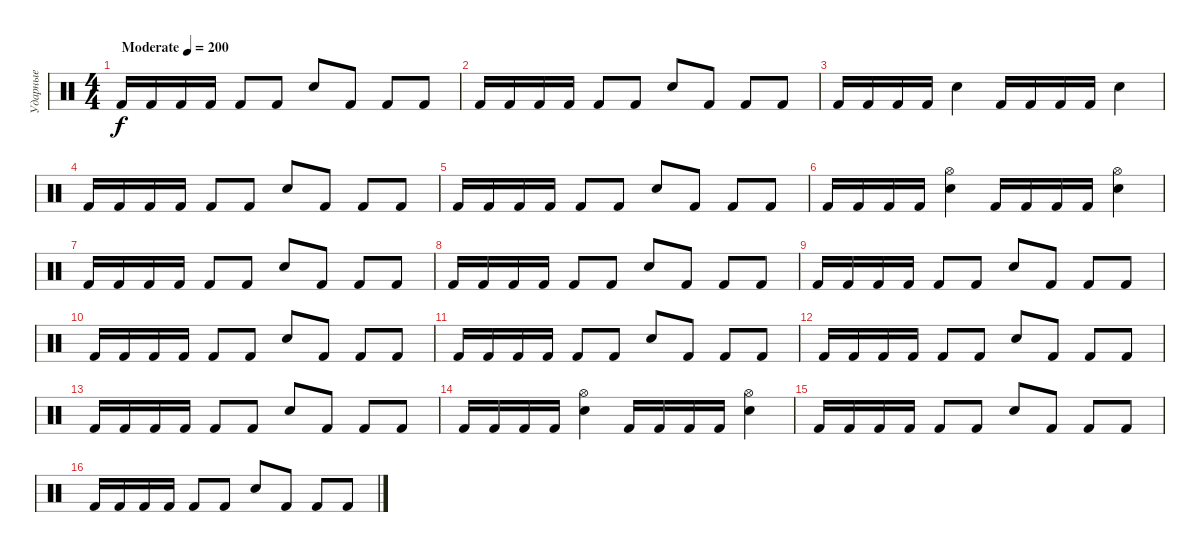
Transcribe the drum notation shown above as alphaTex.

\track ("Ударные" "Ударные") {instrument percussion}
\staff {score}
\articulation defaults
\ts (4 4)
\tempo (200 "Moderate")
\clef neutral
\ks c "Kick (hit) 2".16{dy f} "Kick (hit) 2".16 "Kick (hit) 2".16 "Kick (hit) 2".16 "Kick (hit) 2".8 "Kick (hit) 2".8 "Snare (hit) 2".8 "Kick (hit) 2".8 "Kick (hit) 2".8 "Kick (hit) 2".8
|
"Kick (hit) 2".16 "Kick (hit) 2".16 "Kick (hit) 2".16 "Kick (hit) 2".16 "Kick (hit) 2".8 "Kick (hit) 2".8 "Snare (hit) 2".8 "Kick (hit) 2".8 "Kick (hit) 2".8 "Kick (hit) 2".8 |
"Kick (hit) 2".16 "Kick (hit) 2".16 "Kick (hit) 2".16 "Kick (hit) 2".16 "Snare (hit) 2".4 "Kick (hit) 2".16 "Kick (hit) 2".16 "Kick (hit) 2".16 "Kick (hit) 2".16 "Snare (hit) 2".4 |
"Kick (hit) 2".16 "Kick (hit) 2".16 "Kick (hit) 2".16 "Kick (hit) 2".16 "Kick (hit) 2".8 "Kick (hit) 2".8 "Snare (hit) 2".8 "Kick (hit) 2".8 "Kick (hit) 2".8 "Kick (hit) 2".8 |
"Kick (hit) 2".16 "Kick (hit) 2".16 "Kick (hit) 2".16 "Kick (hit) 2".16 "Kick (hit) 2".8 "Kick (hit) 2".8 "Snare (hit) 2".8 "Kick (hit) 2".8 "Kick (hit) 2".8 "Kick (hit) 2".8 |
"Kick (hit) 2".16 "Kick (hit) 2".16 "Kick (hit) 2".16 "Kick (hit) 2".16 ("Hi-Hat (open)" "Snare (hit) 2").4 "Kick (hit) 2".16 "Kick (hit) 2".16 "Kick (hit) 2".16 "Kick (hit) 2".16 ("Hi-Hat (open)" "Snare (hit) 2").4 |
"Kick (hit) 2".16 "Kick (hit) 2".16 "Kick (hit) 2".16 "Kick (hit) 2".16 "Kick (hit) 2".8 "Kick (hit) 2".8 "Snare (hit) 2".8 "Kick (hit) 2".8 "Kick (hit) 2".8 "Kick (hit) 2".8 |
"Kick (hit) 2".16 "Kick (hit) 2".16 "Kick (hit) 2".16 "Kick (hit) 2".16 "Kick (hit) 2".8 "Kick (hit) 2".8 "Snare (hit) 2".8 "Kick (hit) 2".8 "Kick (hit) 2".8 "Kick (hit) 2".8 |
"Kick (hit) 2".16 "Kick (hit) 2".16 "Kick (hit) 2".16 "Kick (hit) 2".16 "Kick (hit) 2".8 "Kick (hit) 2".8 "Snare (hit) 2".8 "Kick (hit) 2".8 "Kick (hit) 2".8 "Kick (hit) 2".8 |
"Kick (hit) 2".16 "Kick (hit) 2".16 "Kick (hit) 2".16 "Kick (hit) 2".16 "Kick (hit) 2".8 "Kick (hit) 2".8 "Snare (hit) 2".8 "Kick (hit) 2".8 "Kick (hit) 2".8 "Kick (hit) 2".8 |
"Kick (hit) 2".16 "Kick (hit) 2".16 "Kick (hit) 2".16 "Kick (hit) 2".16 "Kick (hit) 2".8 "Kick (hit) 2".8 "Snare (hit) 2".8 "Kick (hit) 2".8 "Kick (hit) 2".8 "Kick (hit) 2".8 |
"Kick (hit) 2".16 "Kick (hit) 2".16 "Kick (hit) 2".16 "Kick (hit) 2".16 "Kick (hit) 2".8 "Kick (hit) 2".8 "Snare (hit) 2".8 "Kick (hit) 2".8 "Kick (hit) 2".8 "Kick (hit) 2".8 |
"Kick (hit) 2".16 "Kick (hit) 2".16 "Kick (hit) 2".16 "Kick (hit) 2".16 "Kick (hit) 2".8 "Kick (hit) 2".8 "Snare (hit) 2".8 "Kick (hit) 2".8 "Kick (hit) 2".8 "Kick (hit) 2".8 |
"Kick (hit) 2".16 "Kick (hit) 2".16 "Kick (hit) 2".16 "Kick (hit) 2".16 ("Hi-Hat (open)" "Snare (hit) 2").4 "Kick (hit) 2".16 "Kick (hit) 2".16 "Kick (hit) 2".16 "Kick (hit) 2".16 ("Hi-Hat (open)" "Snare (hit) 2").4 |
"Kick (hit) 2".16 "Kick (hit) 2".16 "Kick (hit) 2".16 "Kick (hit) 2".16 "Kick (hit) 2".8 "Kick (hit) 2".8 "Snare (hit) 2".8 "Kick (hit) 2".8 "Kick (hit) 2".8 "Kick (hit) 2".8 |
"Kick (hit) 2".16 "Kick (hit) 2".16 "Kick (hit) 2".16 "Kick (hit) 2".16 "Kick (hit) 2".8 "Kick (hit) 2".8 "Snare (hit) 2".8 "Kick (hit) 2".8 "Kick (hit) 2".8 "Kick (hit) 2".8
